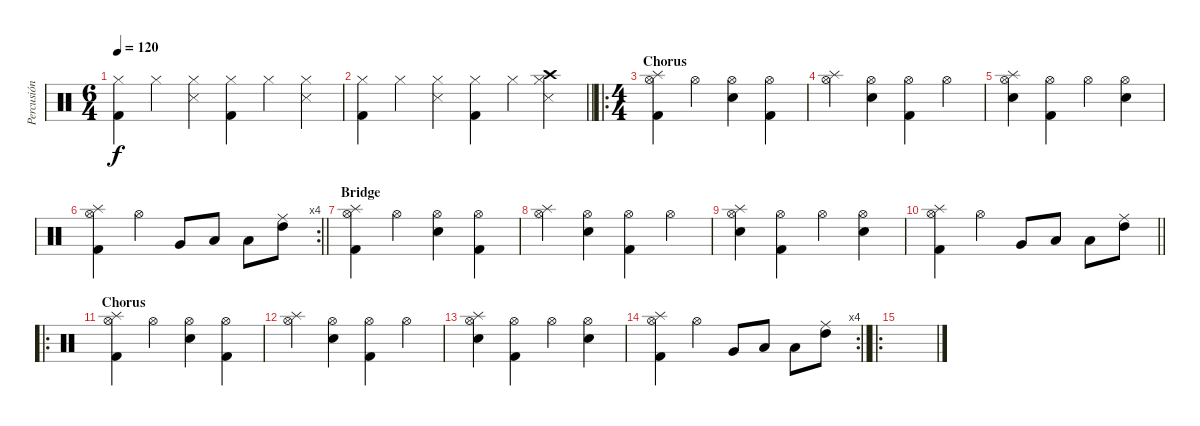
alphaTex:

\track ("Percusión" "Percusión") {instrument percussion}
\staff {score}
\articulation defaults
\ts (6 4)
\tempo 120
\clef neutral
\ks c
("Hi-Hat (closed)" "Kick (hit) 2").4{dy f} "Hi-Hat (closed)".4 ("Metronome (hit)" "Hi-Hat (closed)").4 ("Hi-Hat (closed)" "Kick (hit) 2").4 "Hi-Hat (closed)".4 ("Metronome (hit)" "Hi-Hat (closed)").4 |
\barLineRight lightlight
("Hi-Hat (closed)" "Kick (hit) 2").4 "Hi-Hat (closed)".4 ("Metronome (hit)" "Hi-Hat (closed)").4 ("Hi-Hat (closed)" "Kick (hit) 2").4 "Hi-Hat (closed)".4 ("Metronome (hit)" "Hi-Hat (closed)" "Crash high (hit)").4 |
\ro
\ts (4 4)
\section ("" "Chorus")
("Splash (hit)" "Hi-Hat (open)" "Kick (hit) 2").4 "Hi-Hat (open)".4 ("Snare (hit) 2" "Hi-Hat (open)").4 ("Hi-Hat (open)" "Kick (hit) 2").4 |
("Splash (hit)" "Hi-Hat (open)").4 ("Snare (hit) 2" "Hi-Hat (open)").4 ("Hi-Hat (open)" "Kick (hit) 2").4 "Hi-Hat (open)".4 |
("Splash (hit)" "Snare (hit) 2" "Hi-Hat (open)").4 ("Hi-Hat (open)" "Kick (hit) 2").4 "Hi-Hat (open)".4 ("Snare (hit) 2" "Hi-Hat (open)").4 |
\rc 4
\barLineRight lightlight
("Splash (hit)" "Hi-Hat (open)" "Kick (hit) 2").4 "Hi-Hat (open)".4 "Very Low Tom (hit)".8 "Low Floor Tom (hit)".8 "Low Tom (hit)".8 ("High Tom (hit)" "Ride (middle)").8 |
\section ("" "Bridge")
("Splash (hit)" "Hi-Hat (open)" "Kick (hit) 2").4 "Hi-Hat (open)".4 ("Snare (hit) 2" "Hi-Hat (open)").4 ("Hi-Hat (open)" "Kick (hit) 2").4 |
("Splash (hit)" "Hi-Hat (open)").4 ("Snare (hit) 2" "Hi-Hat (open)").4 ("Hi-Hat (open)" "Kick (hit) 2").4 "Hi-Hat (open)".4 |
("Splash (hit)" "Snare (hit) 2" "Hi-Hat (open)").4 ("Hi-Hat (open)" "Kick (hit) 2").4 "Hi-Hat (open)".4 ("Snare (hit) 2" "Hi-Hat (open)").4 |
\barLineRight lightlight
("Splash (hit)" "Hi-Hat (open)" "Kick (hit) 2").4 "Hi-Hat (open)".4 "Very Low Tom (hit)".8 "Low Floor Tom (hit)".8 "Low Tom (hit)".8 ("High Tom (hit)" "Ride (middle)").8 |
\ro
\section ("" "Chorus")
("Splash (hit)" "Hi-Hat (open)" "Kick (hit) 2").4 "Hi-Hat (open)".4 ("Snare (hit) 2" "Hi-Hat (open)").4 ("Hi-Hat (open)" "Kick (hit) 2").4 |
("Splash (hit)" "Hi-Hat (open)").4 ("Snare (hit) 2" "Hi-Hat (open)").4 ("Hi-Hat (open)" "Kick (hit) 2").4 "Hi-Hat (open)".4 |
("Splash (hit)" "Snare (hit) 2" "Hi-Hat (open)").4 ("Hi-Hat (open)" "Kick (hit) 2").4 "Hi-Hat (open)".4 ("Snare (hit) 2" "Hi-Hat (open)").4 |
\rc 4
\barLineRight lightlight
("Splash (hit)" "Hi-Hat (open)" "Kick (hit) 2").4 "Hi-Hat (open)".4 "Very Low Tom (hit)".8 "Low Floor Tom (hit)".8 "Low Tom (hit)".8 ("High Tom (hit)" "Ride (middle)").8 |
\ro
